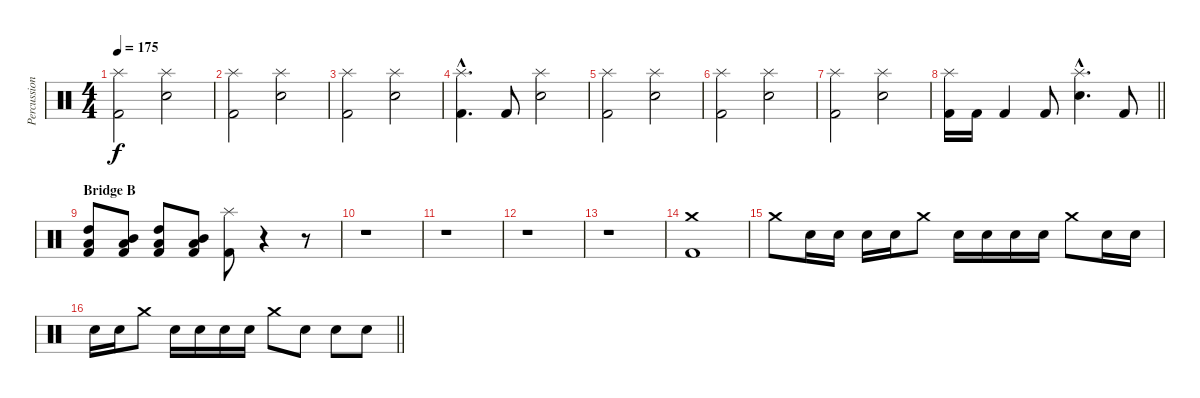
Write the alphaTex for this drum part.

\track ("Percussion" "Percussion") {instrument percussion}
\staff {score}
\articulation defaults
\ts (4 4)
\tempo 175
\clef neutral
\ks c
("Splash (hit)" "Kick (hit) 2").2{dy f} ("Splash (hit)" "Electric Snare (hit)").2 |
("Splash (hit)" "Kick (hit) 2").2 ("Splash (hit)" "Electric Snare (hit)").2 |
("Splash (hit)" "Kick (hit) 2").2 ("Splash (hit)" "Electric Snare (hit)").2 |
("Splash (hit)"{hac} "Kick (hit) 2"{hac}).4{d} "Kick (hit) 2".8 ("Splash (hit)" "Electric Snare (hit)").2 |
("Splash (hit)" "Kick (hit) 2").2 ("Splash (hit)" "Electric Snare (hit)").2 |
("Splash (hit)" "Kick (hit) 2").2 ("Splash (hit)" "Electric Snare (hit)").2 |
("Splash (hit)" "Kick (hit) 2").2 ("Splash (hit)" "Electric Snare (hit)").2 |
\barLineRight lightlight
("Splash (hit)" "Kick (hit) 2").16 "Kick (hit) 2".16 "Kick (hit) 2".4 "Kick (hit) 2".8 ("Splash (hit)"{hac} "Electric Snare (hit)"{hac}).4{d} "Kick (hit) 2".8 |
\section ("" "Bridge B")
("High Tom (hit)" "Low Tom (hit)" "Kick (hit) 2").8 ("Mid Tom (hit)" "Low Tom (hit)" "Kick (hit) 2").8 ("High Tom (hit)" "Low Tom (hit)" "Kick (hit) 2").8 ("Mid Tom (hit)" "Low Tom (hit)" "Kick (hit) 2").8 ("Splash (hit)" "Kick (hit) 2").8 r.4 r.8 |
r.1 |
r.1 |
r.1 |
r.1 |
("Crash medium (hit)" "Kick (hit) 2").1 |
"Crash medium (hit)".8 "Electric Snare (hit)".16 "Electric Snare (hit)".16 "Electric Snare (hit)".16 "Electric Snare (hit)".16 "Crash medium (hit)".8 "Electric Snare (hit)".16 "Electric Snare (hit)".16 "Electric Snare (hit)".16 "Electric Snare (hit)".16 "Crash medium (hit)".8 "Electric Snare (hit)".16 "Electric Snare (hit)".16 |
\barLineRight lightlight "Electric Snare (hit)".16 "Electric Snare (hit)".16 "Crash medium (hit)".8 "Electric Snare (hit)".16 "Electric Snare (hit)".16 "Electric Snare (hit)".16 "Electric Snare (hit)".16 "Crash medium (hit)".8 "Electric Snare (hit)".8 "Electric Snare (hit)".8 "Electric Snare (hit)".8
